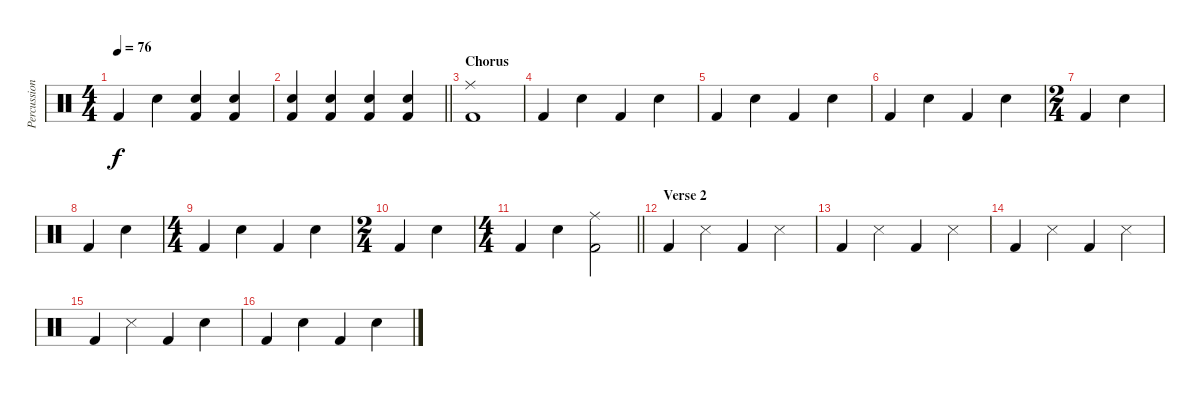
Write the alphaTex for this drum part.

\track ("Percussion" "Percussion") {instrument percussion}
\staff {score}
\articulation defaults
\ts (4 4)
\tempo 76
\clef neutral
\ks c "Kick (hit) 2".4{dy f} "Snare (hit) 2".4
("Snare (hit) 2" "Kick (hit) 2").4 ("Snare (hit) 2" "Kick (hit) 2").4 |
\barLineRight lightlight
("Snare (hit) 2" "Kick (hit) 2").4 ("Snare (hit) 2" "Kick (hit) 2").4 ("Snare (hit) 2" "Kick (hit) 2").4 ("Snare (hit) 2" "Kick (hit) 2").4 |
\section ("" "Chorus")
("Ride (middle)" "Kick (hit) 2").1 |
"Kick (hit) 2".4 "Snare (hit) 2".4 "Kick (hit) 2".4 "Snare (hit) 2".4 |
"Kick (hit) 2".4 "Snare (hit) 2".4 "Kick (hit) 2".4 "Snare (hit) 2".4 |
"Kick (hit) 2".4 "Snare (hit) 2".4 "Kick (hit) 2".4 "Snare (hit) 2".4 |
\ts (2 4)
"Kick (hit) 2".4 "Snare (hit) 2".4 |
"Kick (hit) 2".4 "Snare (hit) 2".4 |
\ts (4 4)
"Kick (hit) 2".4 "Snare (hit) 2".4 "Kick (hit) 2".4 "Snare (hit) 2".4 |
\ts (2 4)
"Kick (hit) 2".4 "Snare (hit) 2".4 |
\ts (4 4)
\barLineRight lightlight "Kick (hit) 2".4 "Snare (hit) 2".4
("Ride (middle)" "Kick (hit) 2").2 |
\section ("" "Verse 2")
"Kick (hit) 2".4 "Snare (side stick) 3".4 "Kick (hit) 2".4 "Snare (side stick) 3".4 |
"Kick (hit) 2".4 "Snare (side stick) 3".4 "Kick (hit) 2".4 "Snare (side stick) 3".4 |
"Kick (hit) 2".4 "Snare (side stick) 3".4 "Kick (hit) 2".4 "Snare (side stick) 3".4 |
"Kick (hit) 2".4 "Snare (side stick) 3".4 "Kick (hit) 2".4 "Snare (hit) 2".4 |
"Kick (hit) 2".4 "Snare (hit) 2".4 "Kick (hit) 2".4 "Snare (hit) 2".4
